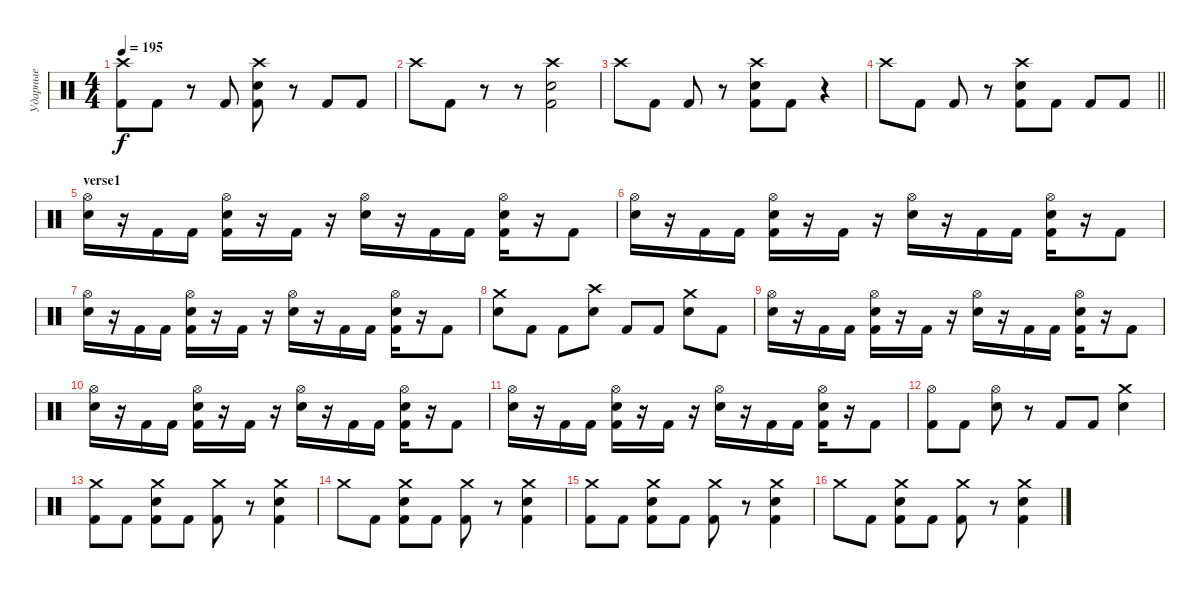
\track ("Ударные" "Ударные") {instrument percussion}
\staff {score}
\articulation defaults
\ts (4 4)
\tempo 195
\clef neutral
\ks c
("Crash high (hit)" "Kick (hit) 2").8{dy f} "Kick (hit) 2".8 r.8 "Kick (hit) 2".8 ("Crash high (hit)" "Electric Snare (hit)" "Kick (hit) 2").8 r.8 "Kick (hit) 2".8 "Kick (hit) 2".8 |
"Crash high (hit)".8 "Kick (hit) 2".8 r.8 r.8 ("Crash high (hit)" "Electric Snare (hit)" "Kick (hit) 2").2 |
"Crash high (hit)".8 "Kick (hit) 2".8 "Kick (hit) 2".8 r.8 ("Crash high (hit)" "Electric Snare (hit)" "Kick (hit) 2").8 "Kick (hit) 2".8 r.4 |
\barLineRight lightlight "Crash high (hit)".8 "Kick (hit) 2".8 "Kick (hit) 2".8
r.8 ("Crash high (hit)" "Electric Snare (hit)" "Kick (hit) 2").8 "Kick (hit) 2".8 "Kick (hit) 2".8 "Kick (hit) 2".8 |
\section ("" "verse1")
("Hi-Hat (open)" "Electric Snare (hit)").16 r.16 "Kick (hit) 2".16 "Kick (hit) 2".16 ("Hi-Hat (open)" "Electric Snare (hit)" "Kick (hit) 2").16 r.16 "Kick (hit) 2".16 r.16 ("Hi-Hat (open)" "Electric Snare (hit)").16 r.16 "Kick (hit) 2".16 "Kick (hit) 2".16 ("Hi-Hat (open)" "Electric Snare (hit)" "Kick (hit) 2").16 r.16 "Kick (hit) 2".8 |
("Hi-Hat (open)" "Electric Snare (hit)").16 r.16 "Kick (hit) 2".16 "Kick (hit) 2".16 ("Hi-Hat (open)" "Electric Snare (hit)" "Kick (hit) 2").16 r.16 "Kick (hit) 2".16 r.16 ("Hi-Hat (open)" "Electric Snare (hit)").16 r.16 "Kick (hit) 2".16 "Kick (hit) 2".16 ("Hi-Hat (open)" "Electric Snare (hit)" "Kick (hit) 2").16 r.16 "Kick (hit) 2".8 |
("Hi-Hat (open)" "Electric Snare (hit)").16 r.16 "Kick (hit) 2".16 "Kick (hit) 2".16 ("Hi-Hat (open)" "Electric Snare (hit)" "Kick (hit) 2").16 r.16 "Kick (hit) 2".16 r.16 ("Hi-Hat (open)" "Electric Snare (hit)").16 r.16 "Kick (hit) 2".16 "Kick (hit) 2".16 ("Hi-Hat (open)" "Electric Snare (hit)" "Kick (hit) 2").16 r.16 "Kick (hit) 2".8 |
("Crash medium (hit)" "Electric Snare (hit)").8 "Kick (hit) 2".8 "Kick (hit) 2".8 ("Crash high (hit)" "Electric Snare (hit)").8 "Kick (hit) 2".8 "Kick (hit) 2".8 ("Crash medium (hit)" "Electric Snare (hit)").8 "Kick (hit) 2".8 |
("Hi-Hat (open)" "Electric Snare (hit)").16 r.16 "Kick (hit) 2".16 "Kick (hit) 2".16 ("Hi-Hat (open)" "Electric Snare (hit)" "Kick (hit) 2").16 r.16 "Kick (hit) 2".16 r.16 ("Hi-Hat (open)" "Electric Snare (hit)").16 r.16 "Kick (hit) 2".16 "Kick (hit) 2".16 ("Hi-Hat (open)" "Electric Snare (hit)" "Kick (hit) 2").16 r.16 "Kick (hit) 2".8 |
("Hi-Hat (open)" "Electric Snare (hit)").16 r.16 "Kick (hit) 2".16 "Kick (hit) 2".16 ("Hi-Hat (open)" "Electric Snare (hit)" "Kick (hit) 2").16 r.16 "Kick (hit) 2".16 r.16 ("Hi-Hat (open)" "Electric Snare (hit)").16 r.16 "Kick (hit) 2".16 "Kick (hit) 2".16 ("Hi-Hat (open)" "Electric Snare (hit)" "Kick (hit) 2").16 r.16 "Kick (hit) 2".8 |
("Hi-Hat (open)" "Electric Snare (hit)").16 r.16 "Kick (hit) 2".16 "Kick (hit) 2".16 ("Hi-Hat (open)" "Electric Snare (hit)" "Kick (hit) 2").16 r.16 "Kick (hit) 2".16 r.16 ("Hi-Hat (open)" "Electric Snare (hit)").16 r.16 "Kick (hit) 2".16 "Kick (hit) 2".16 ("Hi-Hat (open)" "Electric Snare (hit)" "Kick (hit) 2").16 r.16 "Kick (hit) 2".8 |
("Hi-Hat (open)" "Kick (hit) 2").8 "Kick (hit) 2".8 ("Hi-Hat (open)" "Electric Snare (hit)").8 r.8 "Kick (hit) 2".8 "Kick (hit) 2".8 ("Crash medium (hit)" "Electric Snare (hit)").4 |
("Crash medium (hit)" "Kick (hit) 2").8 "Kick (hit) 2".8 ("Crash medium (hit)" "Electric Snare (hit)" "Kick (hit) 2").8 "Kick (hit) 2".8 ("Crash medium (hit)" "Kick (hit) 2").8 r.8 ("Crash medium (hit)" "Electric Snare (hit)" "Kick (hit) 2").4 |
"Crash medium (hit)".8 "Kick (hit) 2".8 ("Crash medium (hit)" "Electric Snare (hit)" "Kick (hit) 2").8 "Kick (hit) 2".8 ("Crash medium (hit)" "Kick (hit) 2").8 r.8 ("Crash medium (hit)" "Electric Snare (hit)" "Kick (hit) 2").4 |
("Crash medium (hit)" "Kick (hit) 2").8 "Kick (hit) 2".8 ("Crash medium (hit)" "Electric Snare (hit)" "Kick (hit) 2").8 "Kick (hit) 2".8 ("Crash medium (hit)" "Kick (hit) 2").8 r.8 ("Crash medium (hit)" "Electric Snare (hit)" "Kick (hit) 2").4 |
"Crash medium (hit)".8 "Kick (hit) 2".8 ("Crash medium (hit)" "Electric Snare (hit)" "Kick (hit) 2").8 "Kick (hit) 2".8 ("Crash medium (hit)" "Kick (hit) 2").8 r.8 ("Crash medium (hit)" "Electric Snare (hit)" "Kick (hit) 2").4
